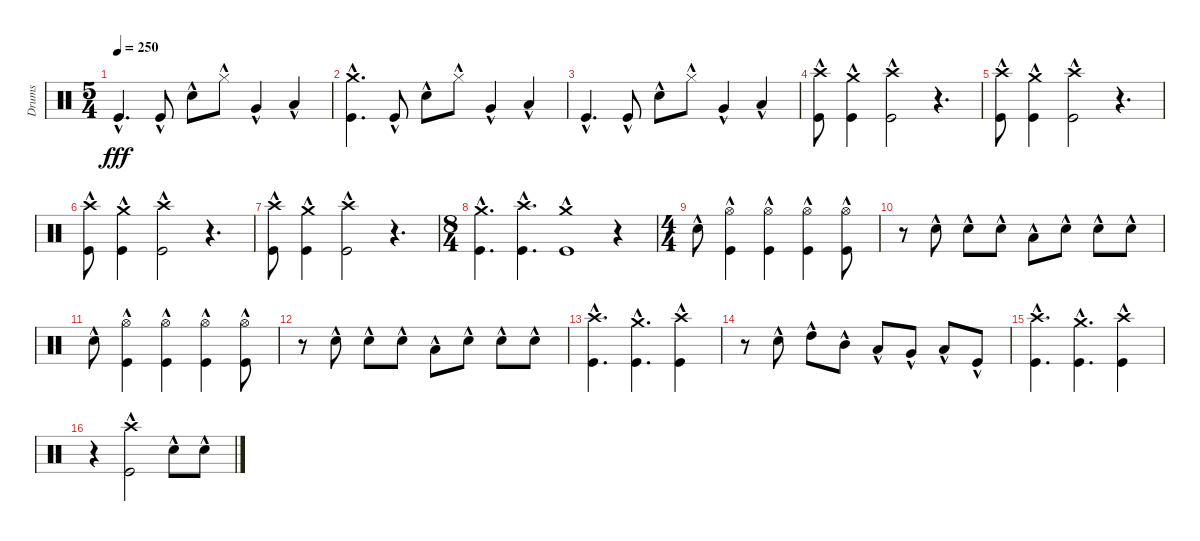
\track ("Drums" "Drums") {instrument percussion}
\staff {score}
\articulation defaults
\ts (5 4)
\tempo 250
\clef neutral
\ks c "Kick (hit)"{hac}.4{d dy fff} "Kick (hit)"{hac}.8 "Snare (hit) 2"{hac}.8 "Hi-Hat (closed)"{hac}.8 "Very Low Tom (hit)"{hac}.4 "Low Floor Tom (hit)"{hac}.4
|
("Crash medium (hit)"{hac} "Kick (hit)"{hac}).4{d} "Kick (hit)"{hac}.8 "Snare (hit) 2"{hac}.8 "Hi-Hat (closed)"{hac}.8 "Very Low Tom (hit)"{hac}.4 "Low Floor Tom (hit)"{hac}.4 |
"Kick (hit)"{hac}.4{d} "Kick (hit)"{hac}.8 "Snare (hit) 2"{hac}.8 "Hi-Hat (closed)"{hac}.8 "Very Low Tom (hit)"{hac}.4 "Low Floor Tom (hit)"{hac}.4 |
("Crash high (hit)"{hac} "Kick (hit)"{hac}).8 ("Crash medium (hit)"{hac} "Kick (hit)"{hac}).4 ("Crash high (hit)"{hac} "Kick (hit)"{hac}).2 r.4{d} |
("Crash high (hit)"{hac} "Kick (hit)"{hac}).8 ("Crash medium (hit)"{hac} "Kick (hit)"{hac}).4 ("Crash high (hit)"{hac} "Kick (hit)"{hac}).2 r.4{d} |
("Crash high (hit)"{hac} "Kick (hit)"{hac}).8 ("Crash medium (hit)"{hac} "Kick (hit)"{hac}).4 ("Crash high (hit)"{hac} "Kick (hit)"{hac}).2 r.4{d} |
("Crash high (hit)"{hac} "Kick (hit)"{hac}).8 ("Crash medium (hit)"{hac} "Kick (hit)"{hac}).4 ("Crash high (hit)"{hac} "Kick (hit)"{hac}).2 r.4{d} |
\ts (8 4)
("Crash medium (hit)"{hac} "Kick (hit)"{hac}).4{d} ("Crash high (hit)"{hac} "Kick (hit)"{hac}).4{d} ("Crash medium (hit)"{hac} "Kick (hit)"{hac}).1 r.4 |
\ts (4 4)
"Snare (hit) 2"{hac}.8 ("Hi-Hat (open)"{hac} "Kick (hit)"{hac}).4 ("Hi-Hat (open)"{hac} "Kick (hit)"{hac}).4 ("Hi-Hat (open)"{hac} "Kick (hit)"{hac}).4 ("Hi-Hat (open)"{hac} "Kick (hit)"{hac}).8 |
r.8 "Snare (hit) 2"{hac}.8 "Snare (hit) 2"{hac}.8 "Snare (hit) 2"{hac}.8 "Low Tom (hit)"{hac}.8 "Snare (hit) 2"{hac}.8 "Snare (hit) 2"{hac}.8 "Snare (hit) 2"{hac}.8 |
"Snare (hit) 2"{hac}.8 ("Hi-Hat (open)"{hac} "Kick (hit)"{hac}).4 ("Hi-Hat (open)"{hac} "Kick (hit)"{hac}).4 ("Hi-Hat (open)"{hac} "Kick (hit)"{hac}).4 ("Hi-Hat (open)"{hac} "Kick (hit)"{hac}).8 |
r.8 "Snare (hit) 2"{hac}.8 "Snare (hit) 2"{hac}.8 "Snare (hit) 2"{hac}.8 "Low Tom (hit)"{hac}.8 "Snare (hit) 2"{hac}.8 "Snare (hit) 2"{hac}.8 "Snare (hit) 2"{hac}.8 |
("Crash high (hit)"{hac} "Kick (hit)"{hac}).4{d} ("Crash medium (hit)"{hac} "Kick (hit)"{hac}).4{d} ("Crash high (hit)"{hac} "Kick (hit)"{hac}).4 |
r.8 "Snare (hit) 2"{hac}.8 "High Tom (hit)"{hac}.8 "Mid Tom (hit)"{hac}.8 "Low Tom (hit)"{hac}.8 "Very Low Tom (hit)"{hac}.8 "Low Floor Tom (hit)"{hac}.8 "Kick (hit)"{hac}.8 |
("Crash high (hit)"{hac} "Kick (hit)"{hac}).4{d} ("Crash medium (hit)"{hac} "Kick (hit)"{hac}).4{d} ("Crash high (hit)"{hac} "Kick (hit)"{hac}).4 |
r.4 ("Crash high (hit)"{hac} "Kick (hit)"{hac}).2 "Snare (hit) 2"{hac}.8 "Snare (hit) 2"{hac}.8
